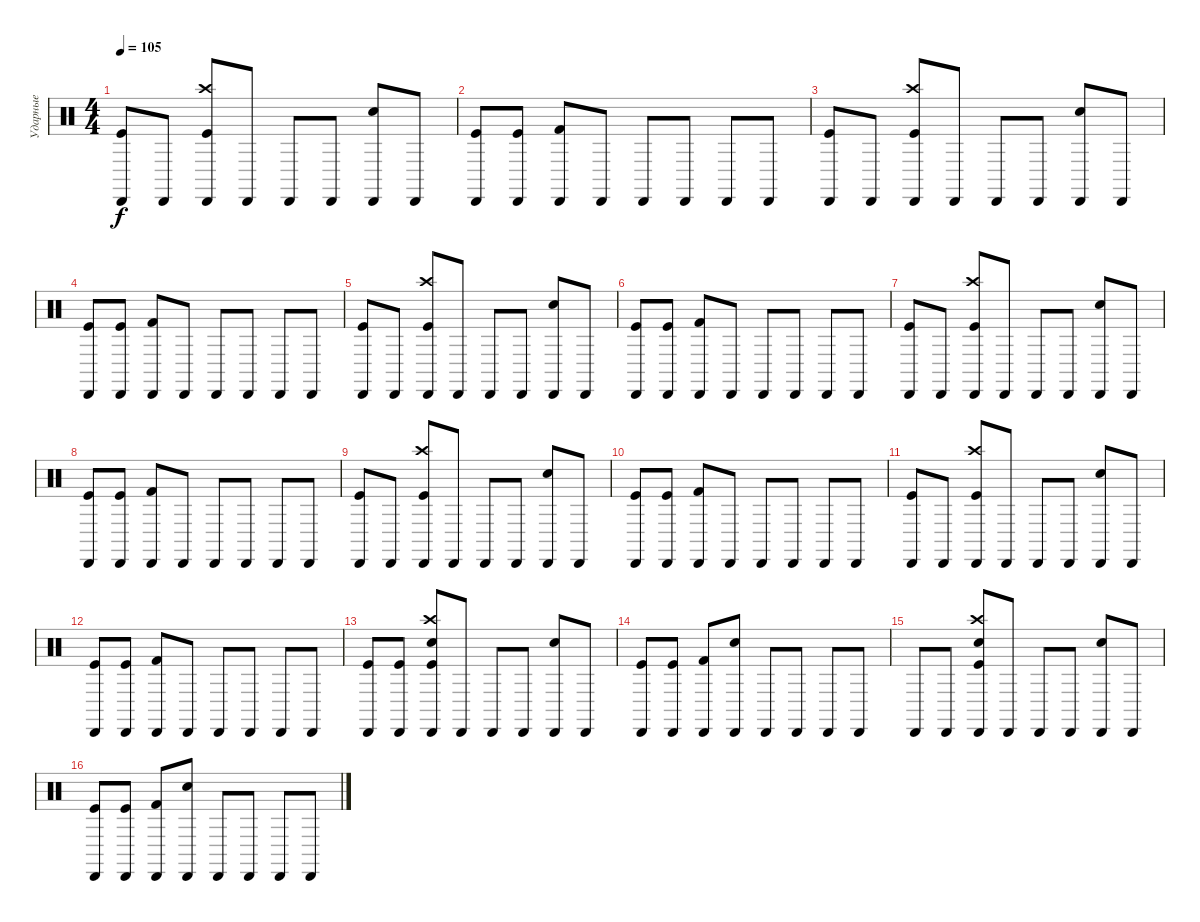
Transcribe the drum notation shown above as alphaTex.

\track ("Ударные" "Ударные") {instrument percussion}
\staff {score}
\articulation defaults
\ts (4 4)
\tempo 105
\clef neutral
\ks c
("Cabasa (hit)" "Kick (hit)").8{dy f} "Cabasa (hit)".8 ("Cabasa (hit)" "Crash high (hit)" "Kick (hit)").8 "Cabasa (hit)".8 "Cabasa (hit)".8 "Cabasa (hit)".8 ("Cabasa (hit)" "Snare (hit) 2").8 "Cabasa (hit)".8 |
("Cabasa (hit)" "Kick (hit)").8 ("Cabasa (hit)" "Kick (hit)").8 ("Cabasa (hit)" "Kick (hit) 2").8 "Cabasa (hit)".8 "Cabasa (hit)".8 "Cabasa (hit)".8 "Cabasa (hit)".8 "Cabasa (hit)".8 |
("Cabasa (hit)" "Kick (hit)").8 "Cabasa (hit)".8 ("Cabasa (hit)" "Crash high (hit)" "Kick (hit)").8 "Cabasa (hit)".8 "Cabasa (hit)".8 "Cabasa (hit)".8 ("Cabasa (hit)" "Snare (hit) 2").8 "Cabasa (hit)".8 |
("Cabasa (hit)" "Kick (hit)").8 ("Cabasa (hit)" "Kick (hit)").8 ("Cabasa (hit)" "Kick (hit) 2").8 "Cabasa (hit)".8 "Cabasa (hit)".8 "Cabasa (hit)".8 "Cabasa (hit)".8 "Cabasa (hit)".8 |
("Cabasa (hit)" "Kick (hit)").8 "Cabasa (hit)".8 ("Cabasa (hit)" "Crash high (hit)" "Kick (hit)").8 "Cabasa (hit)".8 "Cabasa (hit)".8 "Cabasa (hit)".8 ("Cabasa (hit)" "Snare (hit) 2").8 "Cabasa (hit)".8 |
("Cabasa (hit)" "Kick (hit)").8 ("Cabasa (hit)" "Kick (hit)").8 ("Cabasa (hit)" "Kick (hit) 2").8 "Cabasa (hit)".8 "Cabasa (hit)".8 "Cabasa (hit)".8 "Cabasa (hit)".8 "Cabasa (hit)".8 |
("Cabasa (hit)" "Kick (hit)").8 "Cabasa (hit)".8 ("Cabasa (hit)" "Crash high (hit)" "Kick (hit)").8 "Cabasa (hit)".8 "Cabasa (hit)".8 "Cabasa (hit)".8 ("Cabasa (hit)" "Snare (hit) 2").8 "Cabasa (hit)".8 |
("Cabasa (hit)" "Kick (hit)").8 ("Cabasa (hit)" "Kick (hit)").8 ("Cabasa (hit)" "Kick (hit) 2").8 "Cabasa (hit)".8 "Cabasa (hit)".8 "Cabasa (hit)".8 "Cabasa (hit)".8 "Cabasa (hit)".8 |
("Cabasa (hit)" "Kick (hit)").8 "Cabasa (hit)".8 ("Cabasa (hit)" "Crash high (hit)" "Kick (hit)").8 "Cabasa (hit)".8 "Cabasa (hit)".8 "Cabasa (hit)".8 ("Cabasa (hit)" "Snare (hit) 2").8 "Cabasa (hit)".8 |
("Cabasa (hit)" "Kick (hit)").8 ("Cabasa (hit)" "Kick (hit)").8 ("Cabasa (hit)" "Kick (hit) 2").8 "Cabasa (hit)".8 "Cabasa (hit)".8 "Cabasa (hit)".8 "Cabasa (hit)".8 "Cabasa (hit)".8 |
("Cabasa (hit)" "Kick (hit)").8 "Cabasa (hit)".8 ("Cabasa (hit)" "Crash high (hit)" "Kick (hit)").8 "Cabasa (hit)".8 "Cabasa (hit)".8 "Cabasa (hit)".8 ("Cabasa (hit)" "Snare (hit) 2").8 "Cabasa (hit)".8 |
("Cabasa (hit)" "Kick (hit)").8 ("Cabasa (hit)" "Kick (hit)").8 ("Cabasa (hit)" "Kick (hit) 2").8 "Cabasa (hit)".8 "Cabasa (hit)".8 "Cabasa (hit)".8 "Cabasa (hit)".8 "Cabasa (hit)".8 |
("Cabasa (hit)" "Kick (hit)").8 ("Cabasa (hit)" "Kick (hit)").8 ("Cabasa (hit)" "Crash high (hit)" "Electric Snare (hit)" "Kick (hit)").8 "Cabasa (hit)".8 "Cabasa (hit)".8 "Cabasa (hit)".8 ("Cabasa (hit)" "Snare (hit) 2").8 "Cabasa (hit)".8 |
("Cabasa (hit)" "Kick (hit)").8 ("Cabasa (hit)" "Kick (hit)").8 ("Cabasa (hit)" "Kick (hit) 2").8 ("Cabasa (hit)" "Electric Snare (hit)").8 "Cabasa (hit)".8 "Cabasa (hit)".8 "Cabasa (hit)".8 "Cabasa (hit)".8 |
"Cabasa (hit)".8 "Cabasa (hit)".8 ("Cabasa (hit)" "Crash high (hit)" "Electric Snare (hit)" "Kick (hit)").8 "Cabasa (hit)".8 "Cabasa (hit)".8 "Cabasa (hit)".8 ("Cabasa (hit)" "Snare (hit) 2").8 "Cabasa (hit)".8 |
("Cabasa (hit)" "Kick (hit)").8 ("Cabasa (hit)" "Kick (hit)").8 ("Cabasa (hit)" "Kick (hit) 2").8 ("Cabasa (hit)" "Electric Snare (hit)").8 "Cabasa (hit)".8 "Cabasa (hit)".8 "Cabasa (hit)".8 "Cabasa (hit)".8
